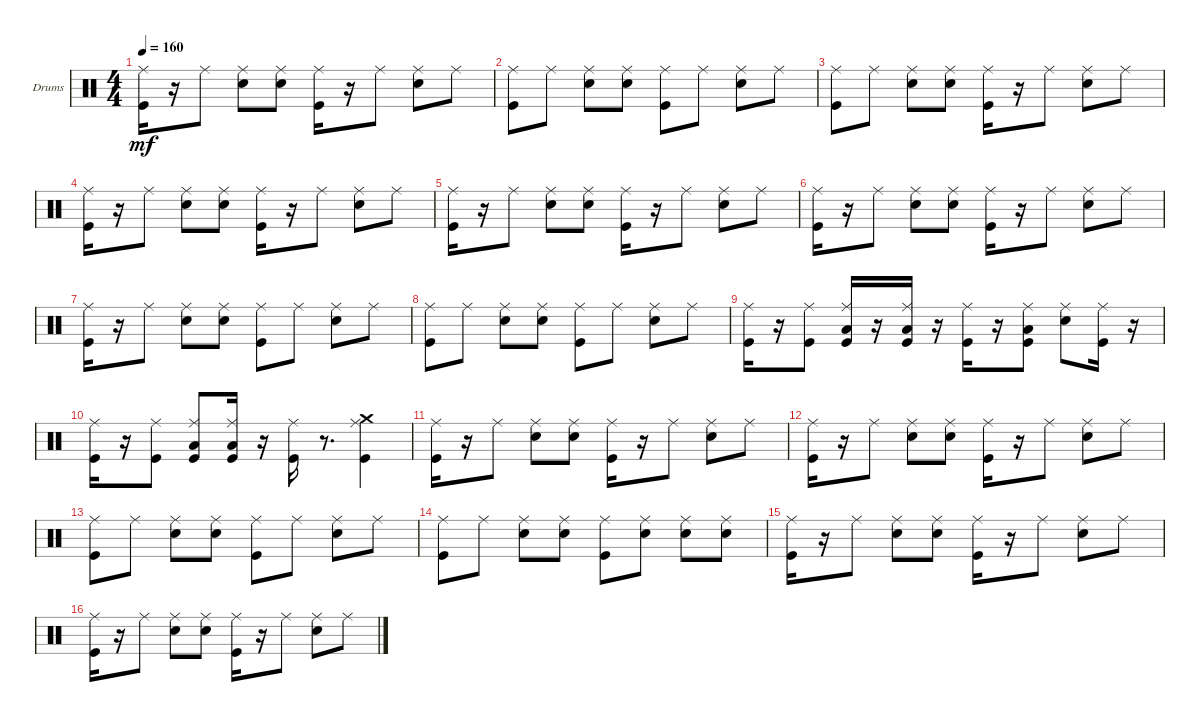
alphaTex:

\defaultSystemsLayout 4
\bracketExtendMode groupsimilarinstruments
\firstSystemTrackNameOrientation horizontal
\otherSystemsTrackNameOrientation horizontal
\track ("Drumkit" "Drums") {instrument percussion}
\staff {score}
\articulation defaults
\ts (4 4)
\tempo 160
\clef neutral
\ks c
("Kick (hit)" "Ride (middle)").16{dy mf} r.16 "Ride (middle)".8 ("Snare (hit) 2" "Ride (middle)").8 ("Snare (hit) 2" "Ride (middle)").8 ("Kick (hit)" "Ride (middle)").16 r.16 "Ride (middle)".8 ("Snare (hit) 2" "Ride (middle)").8 "Ride (middle)".8 |
("Kick (hit)" "Ride (middle)").8 "Ride (middle)".8 ("Snare (hit) 2" "Ride (middle)").8 ("Snare (hit) 2" "Ride (middle)").8 ("Kick (hit)" "Ride (middle)").8 "Ride (middle)".8 ("Snare (hit) 2" "Ride (middle)").8 "Ride (middle)".8 |
("Kick (hit)" "Ride (middle)").8 "Ride (middle)".8 ("Snare (hit) 2" "Ride (middle)").8 ("Snare (hit) 2" "Ride (middle)").8 ("Kick (hit)" "Ride (middle)").16 r.16 "Ride (middle)".8 ("Snare (hit) 2" "Ride (middle)").8 "Ride (middle)".8 |
("Kick (hit)" "Ride (middle)").16 r.16 "Ride (middle)".8 ("Snare (hit) 2" "Ride (middle)").8 ("Snare (hit) 2" "Ride (middle)").8 ("Kick (hit)" "Ride (middle)").16 r.16 "Ride (middle)".8 ("Snare (hit) 2" "Ride (middle)").8 "Ride (middle)".8 |
("Kick (hit)" "Ride (middle)").16 r.16 "Ride (middle)".8 ("Snare (hit) 2" "Ride (middle)").8 ("Snare (hit) 2" "Ride (middle)").8 ("Kick (hit)" "Ride (middle)").16 r.16 "Ride (middle)".8 ("Snare (hit) 2" "Ride (middle)").8 "Ride (middle)".8 |
("Kick (hit)" "Ride (middle)").16 r.16 "Ride (middle)".8 ("Snare (hit) 2" "Ride (middle)").8 ("Snare (hit) 2" "Ride (middle)").8 ("Kick (hit)" "Ride (middle)").16 r.16 "Ride (middle)".8 ("Snare (hit) 2" "Ride (middle)").8 "Ride (middle)".8 |
("Kick (hit)" "Ride (middle)").16 r.16 "Ride (middle)".8 ("Snare (hit) 2" "Ride (middle)").8 ("Snare (hit) 2" "Ride (middle)").8 ("Kick (hit)" "Ride (middle)").8 "Ride (middle)".8 ("Ride (middle)" "Snare (hit) 2").8 "Ride (middle)".8 |
("Kick (hit)" "Ride (middle)").8 "Ride (middle)".8 ("Snare (hit) 2" "Ride (middle)").8 ("Snare (hit) 2" "Ride (middle)").8 ("Kick (hit)" "Ride (middle)").8 "Ride (middle)".8 ("Snare (hit) 2" "Ride (middle)").8 "Ride (middle)".8 |
("Kick (hit)" "Ride (middle)").16 r.16 ("Ride (middle)" "Kick (hit)").8 ("Kick (hit)" "Ride (middle)" "Low Tom (hit)").16 r.16 ("Ride (middle)" "Low Tom (hit)" "Kick (hit)").16 r.16 ("Ride (middle)" "Kick (hit)").16 r.16 ("Ride (middle)" "Low Tom (hit)" "Kick (hit)").8 ("Ride (middle)" "Snare (hit) 2").8 ("Kick (hit)" "Ride (middle)").16 r.16 |
("Kick (hit)" "Ride (middle)").16 r.16 ("Ride (middle)" "Kick (hit)").8 ("Ride (middle)" "Kick (hit)" "Low Tom (hit)").8 ("Ride (middle)" "Kick (hit)" "Low Tom (hit)").16 r.16 ("Ride (middle)" "Kick (hit)").16 r.8{d} ("Ride (middle)" "Kick (hit)" "Crash medium (hit)").4 |
("Kick (hit)" "Ride (middle)").16 r.16 "Ride (middle)".8 ("Snare (hit) 2" "Ride (middle)").8 ("Snare (hit) 2" "Ride (middle)").8 ("Kick (hit)" "Ride (middle)").16 r.16 "Ride (middle)".8 ("Snare (hit) 2" "Ride (middle)").8 "Ride (middle)".8 |
("Kick (hit)" "Ride (middle)").16 r.16 "Ride (middle)".8 ("Snare (hit) 2" "Ride (middle)").8 ("Snare (hit) 2" "Ride (middle)").8 ("Kick (hit)" "Ride (middle)").16 r.16 "Ride (middle)".8 ("Snare (hit) 2" "Ride (middle)").8 "Ride (middle)".8 |
("Kick (hit)" "Ride (middle)").8 "Ride (middle)".8 ("Snare (hit) 2" "Ride (middle)").8 ("Ride (middle)" "Snare (hit) 2").8 ("Kick (hit)" "Ride (middle)").8 "Ride (middle)".8 ("Snare (hit) 2" "Ride (middle)").8 "Ride (middle)".8 |
("Kick (hit)" "Ride (middle)").8 "Ride (middle)".8 ("Snare (hit) 2" "Ride (middle)").8 ("Snare (hit) 2" "Ride (middle)").8 ("Kick (hit)" "Ride (middle)").8 ("Snare (hit) 2" "Ride (middle)").8 ("Snare (hit) 2" "Ride (middle)").8 ("Ride (middle)" "Snare (hit) 2").8 |
("Kick (hit)" "Ride (middle)").16 r.16 "Ride (middle)".8 ("Snare (hit) 2" "Ride (middle)").8 ("Snare (hit) 2" "Ride (middle)").8 ("Kick (hit)" "Ride (middle)").16 r.16 "Ride (middle)".8 ("Ride (middle)" "Snare (hit) 2").8 "Ride (middle)".8 |
("Kick (hit)" "Ride (middle)").16 r.16 "Ride (middle)".8 ("Snare (hit) 2" "Ride (middle)").8 ("Snare (hit) 2" "Ride (middle)").8 ("Kick (hit)" "Ride (middle)").16 r.16 "Ride (middle)".8 ("Snare (hit) 2" "Ride (middle)").8 "Ride (middle)".8
